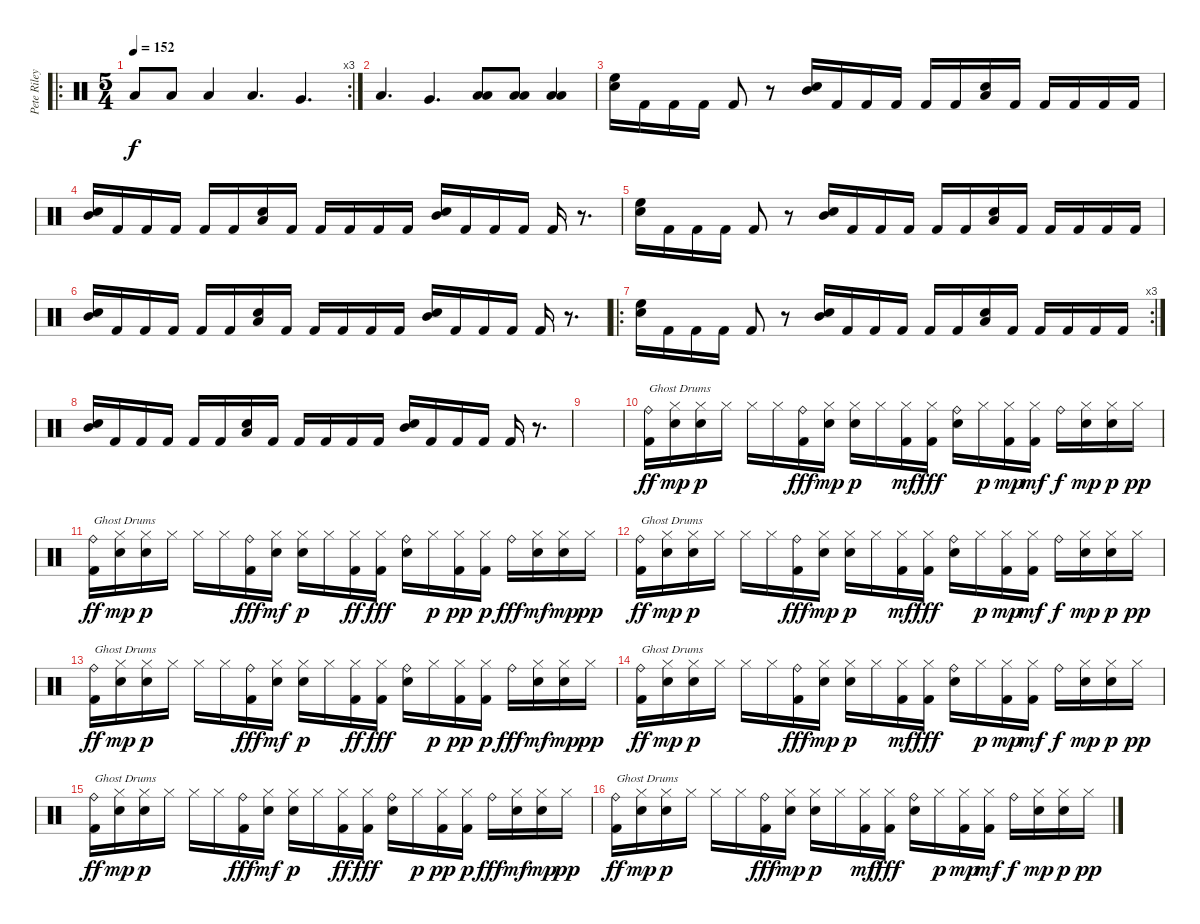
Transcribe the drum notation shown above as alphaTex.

\track ("Pete Riley" "Pete Riley") {instrument percussion}
\staff {score}
\articulation defaults
\ro
\rc 3
\ts (5 4)
\tempo 152
\clef neutral
\ks c "Low Floor Tom (hit)".8{dy f} "Low Floor Tom (hit)".8 "Low Floor Tom (hit)".4 "Low Tom (hit)".4{d} "Very Low Tom (hit)".4{d}
|
"Low Tom (hit)".4{d} "Very Low Tom (hit)".4{d} ("Low Tom (hit)" "Low Floor Tom (hit)").8 ("Low Tom (hit)" "Low Floor Tom (hit)").8 ("Low Tom (hit)" "Low Floor Tom (hit)").4 |
("High Floor Tom (hit)" "Electric Snare (hit)").16 "Kick (hit) 2".16 "Kick (hit) 2".16 "Kick (hit) 2".16 "Kick (hit) 2".8 r.8 ("Mid Tom (hit)" "Electric Snare (hit)").16 "Kick (hit) 2".16 "Kick (hit) 2".16 "Kick (hit) 2".16 "Kick (hit) 2".16 "Kick (hit) 2".16 ("Low Tom (hit)" "Electric Snare (hit)").16 "Kick (hit) 2".16 "Kick (hit) 2".16 "Kick (hit) 2".16 "Kick (hit) 2".16 "Kick (hit) 2".16 |
("Mid Tom (hit)" "Electric Snare (hit)").16 "Kick (hit) 2".16 "Kick (hit) 2".16 "Kick (hit) 2".16 "Kick (hit) 2".16 "Kick (hit) 2".16 ("Low Tom (hit)" "Electric Snare (hit)").16 "Kick (hit) 2".16 "Kick (hit) 2".16 "Kick (hit) 2".16 "Kick (hit) 2".16 "Kick (hit) 2".16 ("Mid Tom (hit)" "Electric Snare (hit)").16 "Kick (hit) 2".16 "Kick (hit) 2".16 "Kick (hit) 2".16 "Kick (hit) 2".16 r.8{d} |
("High Floor Tom (hit)" "Electric Snare (hit)").16 "Kick (hit) 2".16 "Kick (hit) 2".16 "Kick (hit) 2".16 "Kick (hit) 2".8 r.8 ("Mid Tom (hit)" "Electric Snare (hit)").16 "Kick (hit) 2".16 "Kick (hit) 2".16 "Kick (hit) 2".16 "Kick (hit) 2".16 "Kick (hit) 2".16 ("Low Tom (hit)" "Electric Snare (hit)").16 "Kick (hit) 2".16 "Kick (hit) 2".16 "Kick (hit) 2".16 "Kick (hit) 2".16 "Kick (hit) 2".16 |
("Mid Tom (hit)" "Electric Snare (hit)").16 "Kick (hit) 2".16 "Kick (hit) 2".16 "Kick (hit) 2".16 "Kick (hit) 2".16 "Kick (hit) 2".16 ("Low Tom (hit)" "Electric Snare (hit)").16 "Kick (hit) 2".16 "Kick (hit) 2".16 "Kick (hit) 2".16 "Kick (hit) 2".16 "Kick (hit) 2".16 ("Mid Tom (hit)" "Electric Snare (hit)").16 "Kick (hit) 2".16 "Kick (hit) 2".16 "Kick (hit) 2".16 "Kick (hit) 2".16 r.8{d} |
\ro
\rc 3
("High Floor Tom (hit)" "Electric Snare (hit)").16 "Kick (hit) 2".16 "Kick (hit) 2".16 "Kick (hit) 2".16 "Kick (hit) 2".8 r.8 ("Mid Tom (hit)" "Electric Snare (hit)").16 "Kick (hit) 2".16 "Kick (hit) 2".16 "Kick (hit) 2".16 "Kick (hit) 2".16 "Kick (hit) 2".16 ("Low Tom (hit)" "Electric Snare (hit)").16 "Kick (hit) 2".16 "Kick (hit) 2".16 "Kick (hit) 2".16 "Kick (hit) 2".16 "Kick (hit) 2".16 |
("Mid Tom (hit)" "Electric Snare (hit)").16 "Kick (hit) 2".16 "Kick (hit) 2".16 "Kick (hit) 2".16 "Kick (hit) 2".16 "Kick (hit) 2".16 ("Low Tom (hit)" "Electric Snare (hit)").16 "Kick (hit) 2".16 "Kick (hit) 2".16 "Kick (hit) 2".16 "Kick (hit) 2".16 "Kick (hit) 2".16 ("Mid Tom (hit)" "Electric Snare (hit)").16 "Kick (hit) 2".16 "Kick (hit) 2".16 "Kick (hit) 2".16 "Kick (hit) 2".16 r.8{d} |
|
("Ride (bell)" "Kick (hit) 2").16{txt "Ghost Drums" dy ff} ("Hi-Hat (closed)" "Electric Snare (hit)").16{dy mp} ("Hi-Hat (closed)" "Electric Snare (hit)").16{dy p} "Hi-Hat (closed)".16 "Hi-Hat (closed)".16 "Hi-Hat (closed)".16 ("Ride (bell)" "Kick (hit) 2").16{dy fff} ("Hi-Hat (closed)" "Electric Snare (hit)").16{dy mp} ("Hi-Hat (closed)" "Electric Snare (hit)").16{dy p} "Hi-Hat (closed)".16 ("Hi-Hat (closed)" "Kick (hit) 2").16{dy mf} ("Hi-Hat (closed)" "Kick (hit) 2").16{dy fff} ("Ride (bell)" "Electric Snare (hit)").16 "Hi-Hat (closed)".16{dy p} ("Hi-Hat (closed)" "Kick (hit) 2").16{dy mp} ("Hi-Hat (closed)" "Kick (hit) 2").16{dy mf} "Ride (bell)".16{dy f} ("Hi-Hat (closed)" "Electric Snare (hit)").16{dy mp} ("Hi-Hat (closed)" "Electric Snare (hit)").16{dy p} "Hi-Hat (closed)".16{dy pp} |
("Ride (bell)" "Kick (hit) 2").16{txt "Ghost Drums" dy ff} ("Hi-Hat (closed)" "Electric Snare (hit)").16{dy mp} ("Hi-Hat (closed)" "Electric Snare (hit)").16{dy p} "Hi-Hat (closed)".16 "Hi-Hat (closed)".16 "Hi-Hat (closed)".16 ("Ride (bell)" "Kick (hit) 2").16{dy fff} ("Hi-Hat (closed)" "Electric Snare (hit)").16{dy mf} ("Hi-Hat (closed)" "Electric Snare (hit)").16{dy p} "Hi-Hat (closed)".16 ("Hi-Hat (closed)" "Kick (hit) 2").16{dy ff} ("Hi-Hat (closed)" "Kick (hit) 2").16{dy fff} ("Ride (bell)" "Electric Snare (hit)").16 "Hi-Hat (closed)".16{dy p} ("Hi-Hat (closed)" "Kick (hit) 2").16{dy pp} ("Hi-Hat (closed)" "Kick (hit) 2").16{dy p} "Ride (bell)".16{dy fff} ("Hi-Hat (closed)" "Electric Snare (hit)").16{dy mf} ("Hi-Hat (closed)" "Electric Snare (hit)").16{dy mp} "Hi-Hat (closed)".16{dy pp} |
("Ride (bell)" "Kick (hit) 2").16{txt "Ghost Drums" dy ff} ("Hi-Hat (closed)" "Electric Snare (hit)").16{dy mp} ("Hi-Hat (closed)" "Electric Snare (hit)").16{dy p} "Hi-Hat (closed)".16 "Hi-Hat (closed)".16 "Hi-Hat (closed)".16 ("Ride (bell)" "Kick (hit) 2").16{dy fff} ("Hi-Hat (closed)" "Electric Snare (hit)").16{dy mp} ("Hi-Hat (closed)" "Electric Snare (hit)").16{dy p} "Hi-Hat (closed)".16 ("Hi-Hat (closed)" "Kick (hit) 2").16{dy mf} ("Hi-Hat (closed)" "Kick (hit) 2").16{dy fff} ("Ride (bell)" "Electric Snare (hit)").16 "Hi-Hat (closed)".16{dy p} ("Hi-Hat (closed)" "Kick (hit) 2").16{dy mp} ("Hi-Hat (closed)" "Kick (hit) 2").16{dy mf} "Ride (bell)".16{dy f} ("Hi-Hat (closed)" "Electric Snare (hit)").16{dy mp} ("Hi-Hat (closed)" "Electric Snare (hit)").16{dy p} "Hi-Hat (closed)".16{dy pp} |
("Ride (bell)" "Kick (hit) 2").16{txt "Ghost Drums" dy ff} ("Hi-Hat (closed)" "Electric Snare (hit)").16{dy mp} ("Hi-Hat (closed)" "Electric Snare (hit)").16{dy p} "Hi-Hat (closed)".16 "Hi-Hat (closed)".16 "Hi-Hat (closed)".16 ("Ride (bell)" "Kick (hit) 2").16{dy fff} ("Hi-Hat (closed)" "Electric Snare (hit)").16{dy mf} ("Hi-Hat (closed)" "Electric Snare (hit)").16{dy p} "Hi-Hat (closed)".16 ("Hi-Hat (closed)" "Kick (hit) 2").16{dy ff} ("Hi-Hat (closed)" "Kick (hit) 2").16{dy fff} ("Ride (bell)" "Electric Snare (hit)").16 "Hi-Hat (closed)".16{dy p} ("Hi-Hat (closed)" "Kick (hit) 2").16{dy pp} ("Hi-Hat (closed)" "Kick (hit) 2").16{dy p} "Ride (bell)".16{dy fff} ("Hi-Hat (closed)" "Electric Snare (hit)").16{dy mf} ("Hi-Hat (closed)" "Electric Snare (hit)").16{dy mp} "Hi-Hat (closed)".16{dy pp} |
("Ride (bell)" "Kick (hit) 2").16{txt "Ghost Drums" dy ff} ("Hi-Hat (closed)" "Electric Snare (hit)").16{dy mp} ("Hi-Hat (closed)" "Electric Snare (hit)").16{dy p} "Hi-Hat (closed)".16 "Hi-Hat (closed)".16 "Hi-Hat (closed)".16 ("Ride (bell)" "Kick (hit) 2").16{dy fff} ("Hi-Hat (closed)" "Electric Snare (hit)").16{dy mp} ("Hi-Hat (closed)" "Electric Snare (hit)").16{dy p} "Hi-Hat (closed)".16 ("Hi-Hat (closed)" "Kick (hit) 2").16{dy mf} ("Hi-Hat (closed)" "Kick (hit) 2").16{dy fff} ("Ride (bell)" "Electric Snare (hit)").16 "Hi-Hat (closed)".16{dy p} ("Hi-Hat (closed)" "Kick (hit) 2").16{dy mp} ("Hi-Hat (closed)" "Kick (hit) 2").16{dy mf} "Ride (bell)".16{dy f} ("Hi-Hat (closed)" "Electric Snare (hit)").16{dy mp} ("Hi-Hat (closed)" "Electric Snare (hit)").16{dy p} "Hi-Hat (closed)".16{dy pp} |
("Ride (bell)" "Kick (hit) 2").16{txt "Ghost Drums" dy ff} ("Hi-Hat (closed)" "Electric Snare (hit)").16{dy mp} ("Hi-Hat (closed)" "Electric Snare (hit)").16{dy p} "Hi-Hat (closed)".16 "Hi-Hat (closed)".16 "Hi-Hat (closed)".16 ("Ride (bell)" "Kick (hit) 2").16{dy fff} ("Hi-Hat (closed)" "Electric Snare (hit)").16{dy mf} ("Hi-Hat (closed)" "Electric Snare (hit)").16{dy p} "Hi-Hat (closed)".16 ("Hi-Hat (closed)" "Kick (hit) 2").16{dy ff} ("Hi-Hat (closed)" "Kick (hit) 2").16{dy fff} ("Ride (bell)" "Electric Snare (hit)").16 "Hi-Hat (closed)".16{dy p} ("Hi-Hat (closed)" "Kick (hit) 2").16{dy pp} ("Hi-Hat (closed)" "Kick (hit) 2").16{dy p} "Ride (bell)".16{dy fff} ("Hi-Hat (closed)" "Electric Snare (hit)").16{dy mf} ("Hi-Hat (closed)" "Electric Snare (hit)").16{dy mp} "Hi-Hat (closed)".16{dy pp} |
("Ride (bell)" "Kick (hit) 2").16{txt "Ghost Drums" dy ff} ("Hi-Hat (closed)" "Electric Snare (hit)").16{dy mp} ("Hi-Hat (closed)" "Electric Snare (hit)").16{dy p} "Hi-Hat (closed)".16 "Hi-Hat (closed)".16 "Hi-Hat (closed)".16 ("Ride (bell)" "Kick (hit) 2").16{dy fff} ("Hi-Hat (closed)" "Electric Snare (hit)").16{dy mp} ("Hi-Hat (closed)" "Electric Snare (hit)").16{dy p} "Hi-Hat (closed)".16 ("Hi-Hat (closed)" "Kick (hit) 2").16{dy mf} ("Hi-Hat (closed)" "Kick (hit) 2").16{dy fff} ("Ride (bell)" "Electric Snare (hit)").16 "Hi-Hat (closed)".16{dy p} ("Hi-Hat (closed)" "Kick (hit) 2").16{dy mp} ("Hi-Hat (closed)" "Kick (hit) 2").16{dy mf} "Ride (bell)".16{dy f} ("Hi-Hat (closed)" "Electric Snare (hit)").16{dy mp} ("Hi-Hat (closed)" "Electric Snare (hit)").16{dy p} "Hi-Hat (closed)".16{dy pp}
